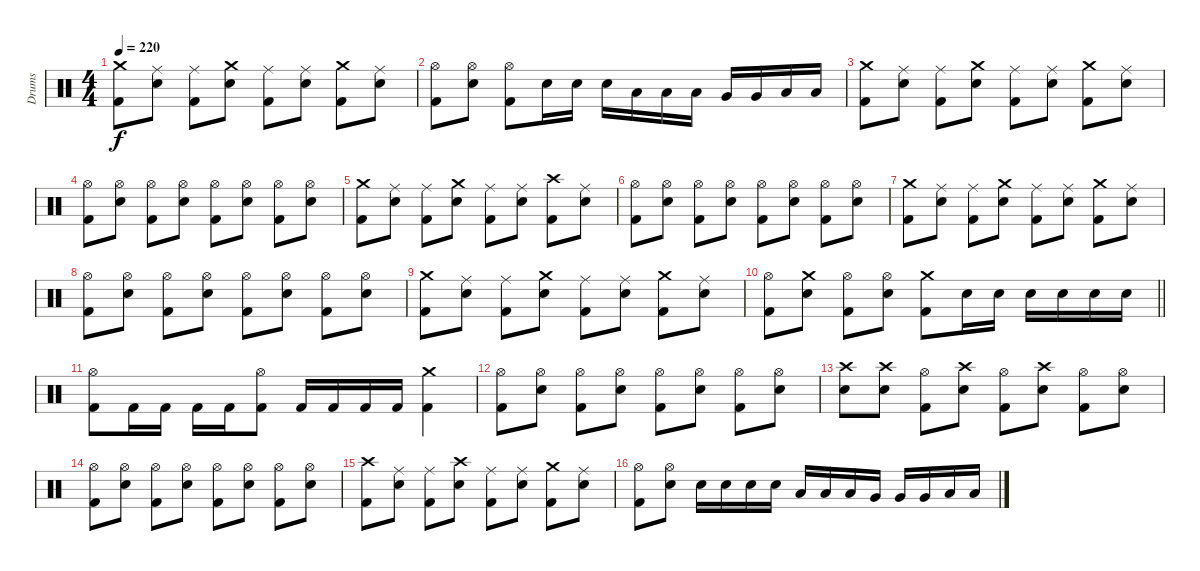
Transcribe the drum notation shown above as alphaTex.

\track ("Drums" "Drums") {instrument percussion}
\staff {score}
\articulation defaults
\ts (4 4)
\tempo 220
\clef neutral
\ks c
("Crash medium (hit)" "Kick (hit) 2").8{dy f} ("Ride (middle)" "Electric Snare (hit)").8 ("Ride (middle)" "Kick (hit) 2").8 ("Crash medium (hit)" "Electric Snare (hit)").8 ("Ride (middle)" "Kick (hit) 2").8 ("Ride (middle)" "Electric Snare (hit)").8 ("Crash medium (hit)" "Kick (hit) 2").8 ("Ride (middle)" "Electric Snare (hit)").8 |
("Hi-Hat (open)" "Kick (hit) 2").8 ("Hi-Hat (open)" "Electric Snare (hit)").8 ("Hi-Hat (open)" "Kick (hit) 2").8 "Electric Snare (hit)".16 "Electric Snare (hit)".16 "Electric Snare (hit)".16 "Low Tom (hit)".16 "Low Tom (hit)".16 "Low Tom (hit)".16 "Very Low Tom (hit)".16 "Very Low Tom (hit)".16 "Low Floor Tom (hit)".16 "Low Floor Tom (hit)".16 |
("Crash medium (hit)" "Kick (hit) 2").8 ("Ride (middle)" "Electric Snare (hit)").8 ("Ride (middle)" "Kick (hit) 2").8 ("Crash medium (hit)" "Electric Snare (hit)").8 ("Ride (middle)" "Kick (hit) 2").8 ("Ride (middle)" "Electric Snare (hit)").8 ("Crash medium (hit)" "Kick (hit) 2").8 ("Ride (middle)" "Electric Snare (hit)").8 |
("Hi-Hat (open)" "Kick (hit) 2").8 ("Hi-Hat (open)" "Electric Snare (hit)").8 ("Hi-Hat (open)" "Kick (hit) 2").8 ("Hi-Hat (open)" "Electric Snare (hit)").8 ("Hi-Hat (open)" "Kick (hit) 2").8 ("Hi-Hat (open)" "Electric Snare (hit)").8 ("Hi-Hat (open)" "Kick (hit) 2").8 ("Hi-Hat (open)" "Electric Snare (hit)").8 |
("Crash medium (hit)" "Kick (hit) 2").8 ("Ride (middle)" "Electric Snare (hit)").8 ("Ride (middle)" "Kick (hit) 2").8 ("Crash medium (hit)" "Electric Snare (hit)").8 ("Ride (middle)" "Kick (hit) 2").8 ("Ride (middle)" "Electric Snare (hit)").8 ("Crash high (hit)" "Kick (hit) 2").8 ("Ride (middle)" "Electric Snare (hit)").8 |
("Hi-Hat (open)" "Kick (hit) 2").8 ("Hi-Hat (open)" "Electric Snare (hit)").8 ("Hi-Hat (open)" "Kick (hit) 2").8 ("Hi-Hat (open)" "Electric Snare (hit)").8 ("Hi-Hat (open)" "Kick (hit) 2").8 ("Hi-Hat (open)" "Electric Snare (hit)").8 ("Hi-Hat (open)" "Kick (hit) 2").8 ("Hi-Hat (open)" "Electric Snare (hit)").8 |
("Crash medium (hit)" "Kick (hit) 2").8 ("Ride (middle)" "Electric Snare (hit)").8 ("Ride (middle)" "Kick (hit) 2").8 ("Crash medium (hit)" "Electric Snare (hit)").8 ("Ride (middle)" "Kick (hit) 2").8 ("Ride (middle)" "Electric Snare (hit)").8 ("Crash medium (hit)" "Kick (hit) 2").8 ("Ride (middle)" "Electric Snare (hit)").8 |
("Hi-Hat (open)" "Kick (hit) 2").8 ("Hi-Hat (open)" "Electric Snare (hit)").8 ("Hi-Hat (open)" "Kick (hit) 2").8 ("Hi-Hat (open)" "Electric Snare (hit)").8 ("Hi-Hat (open)" "Kick (hit) 2").8 ("Hi-Hat (open)" "Electric Snare (hit)").8 ("Hi-Hat (open)" "Kick (hit) 2").8 ("Hi-Hat (open)" "Electric Snare (hit)").8 |
("Crash medium (hit)" "Kick (hit) 2").8 ("Ride (middle)" "Electric Snare (hit)").8 ("Ride (middle)" "Kick (hit) 2").8 ("Crash medium (hit)" "Electric Snare (hit)").8 ("Ride (middle)" "Kick (hit) 2").8 ("Ride (middle)" "Electric Snare (hit)").8 ("Crash medium (hit)" "Kick (hit) 2").8 ("Ride (middle)" "Electric Snare (hit)").8 |
\barLineRight lightlight
("Hi-Hat (open)" "Kick (hit) 2").8 ("Crash medium (hit)" "Electric Snare (hit)").8 ("Hi-Hat (open)" "Kick (hit) 2").8 ("Hi-Hat (open)" "Electric Snare (hit)").8 ("Crash medium (hit)" "Kick (hit) 2").8 "Electric Snare (hit)".16 "Electric Snare (hit)".16 "Electric Snare (hit)".16 "Electric Snare (hit)".16 "Electric Snare (hit)".16 "Electric Snare (hit)".16 |
\section ("" "")
("Hi-Hat (open)" "Kick (hit) 2").8 "Kick (hit) 2".16 "Kick (hit) 2".16 "Kick (hit) 2".16 "Kick (hit) 2".16 ("Hi-Hat (open)" "Kick (hit) 2").8 "Kick (hit) 2".16 "Kick (hit) 2".16 "Kick (hit) 2".16 "Kick (hit) 2".16 ("Crash medium (hit)" "Kick (hit) 2").4 |
("Hi-Hat (open)" "Kick (hit) 2").8 ("Hi-Hat (open)" "Electric Snare (hit)").8 ("Hi-Hat (open)" "Kick (hit) 2").8 ("Hi-Hat (open)" "Electric Snare (hit)").8 ("Hi-Hat (open)" "Kick (hit) 2").8 ("Hi-Hat (open)" "Electric Snare (hit)").8 ("Hi-Hat (open)" "Kick (hit) 2").8 ("Hi-Hat (open)" "Electric Snare (hit)").8 |
("Crash high (hit)" "Electric Snare (hit)").8 ("Crash high (hit)" "Electric Snare (hit)").8 ("Hi-Hat (open)" "Kick (hit) 2").8 ("Crash high (hit)" "Electric Snare (hit)").8 ("Hi-Hat (open)" "Kick (hit) 2").8 ("Crash high (hit)" "Electric Snare (hit)").8 ("Hi-Hat (open)" "Kick (hit) 2").8 ("Hi-Hat (open)" "Electric Snare (hit)").8 |
("Hi-Hat (open)" "Kick (hit) 2").8 ("Hi-Hat (open)" "Electric Snare (hit)").8 ("Hi-Hat (open)" "Kick (hit) 2").8 ("Hi-Hat (open)" "Electric Snare (hit)").8 ("Hi-Hat (open)" "Kick (hit) 2").8 ("Hi-Hat (open)" "Electric Snare (hit)").8 ("Hi-Hat (open)" "Kick (hit) 2").8 ("Hi-Hat (open)" "Electric Snare (hit)").8 |
("Crash high (hit)" "Kick (hit) 2").8 ("Ride (middle)" "Electric Snare (hit)").8 ("Ride (middle)" "Kick (hit) 2").8 ("Crash high (hit)" "Electric Snare (hit)").8 ("Ride (middle)" "Kick (hit) 2").8 ("Ride (middle)" "Electric Snare (hit)").8 ("Crash medium (hit)" "Kick (hit) 2").8 ("Ride (middle)" "Electric Snare (hit)").8 |
("Hi-Hat (open)" "Kick (hit) 2").8 ("Hi-Hat (open)" "Electric Snare (hit)").8 "Electric Snare (hit)".16 "Electric Snare (hit)".16 "Electric Snare (hit)".16 "Electric Snare (hit)".16 "Low Tom (hit)".16 "Low Tom (hit)".16 "Low Tom (hit)".16 "Very Low Tom (hit)".16 "Very Low Tom (hit)".16 "Very Low Tom (hit)".16 "Low Floor Tom (hit)".16 "Low Floor Tom (hit)".16
